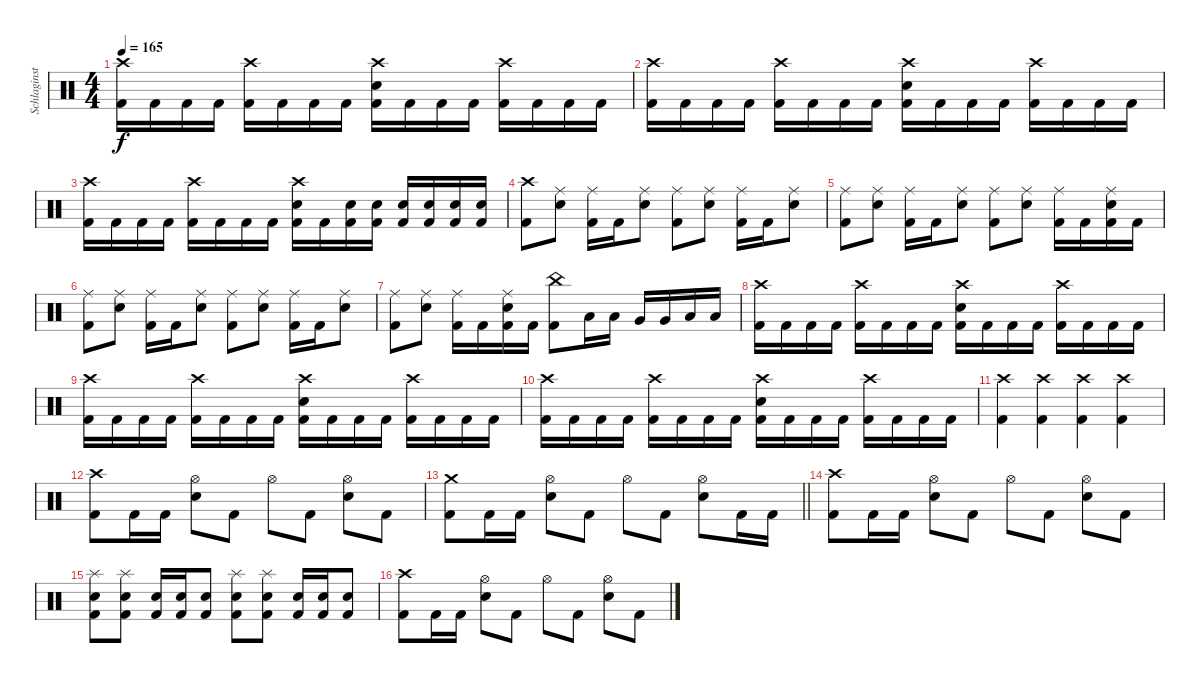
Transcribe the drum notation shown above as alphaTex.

\track ("Schlaginstrumente - Auswahl" "Schlaginst") {instrument percussion}
\staff {score}
\articulation defaults
\ts (4 4)
\tempo 165
\clef neutral
\ks c
("Crash high (hit)" "Kick (hit) 2").16{dy f} "Kick (hit) 2".16 "Kick (hit) 2".16 "Kick (hit) 2".16 ("Crash high (hit)" "Kick (hit) 2").16 "Kick (hit) 2".16 "Kick (hit) 2".16 "Kick (hit) 2".16 ("Crash high (hit)" "Snare (hit) 2" "Kick (hit) 2").16 "Kick (hit) 2".16 "Kick (hit) 2".16 "Kick (hit) 2".16 ("Crash high (hit)" "Kick (hit) 2").16 "Kick (hit) 2".16 "Kick (hit) 2".16 "Kick (hit) 2".16 |
("Crash high (hit)" "Kick (hit) 2").16 "Kick (hit) 2".16 "Kick (hit) 2".16 "Kick (hit) 2".16 ("Crash high (hit)" "Kick (hit) 2").16 "Kick (hit) 2".16 "Kick (hit) 2".16 "Kick (hit) 2".16 ("Crash high (hit)" "Snare (hit) 2" "Kick (hit) 2").16 "Kick (hit) 2".16 "Kick (hit) 2".16 "Kick (hit) 2".16 ("Crash high (hit)" "Kick (hit) 2").16 "Kick (hit) 2".16 "Kick (hit) 2".16 "Kick (hit) 2".16 |
("Crash high (hit)" "Kick (hit) 2").16 "Kick (hit) 2".16 "Kick (hit) 2".16 "Kick (hit) 2".16 ("Crash high (hit)" "Kick (hit) 2").16 "Kick (hit) 2".16 "Kick (hit) 2".16 "Kick (hit) 2".16 ("Crash high (hit)" "Snare (hit) 2" "Kick (hit) 2").16 "Kick (hit) 2".16 ("Snare (hit) 2" "Kick (hit) 2").16 ("Snare (hit) 2" "Kick (hit) 2").16 ("Snare (hit) 2" "Kick (hit) 2").16 ("Snare (hit) 2" "Kick (hit) 2").16 ("Snare (hit) 2" "Kick (hit) 2").16 ("Snare (hit) 2" "Kick (hit) 2").16 |
("Crash high (hit)" "Kick (hit) 2").8 ("Ride (middle)" "Snare (hit) 2").8 ("Ride (middle)" "Kick (hit) 2").16 "Kick (hit) 2".16 ("Ride (middle)" "Snare (hit) 2").8 ("Ride (middle)" "Kick (hit) 2").8 ("Ride (middle)" "Snare (hit) 2").8 ("Ride (middle)" "Kick (hit) 2").16 "Kick (hit) 2".16 ("Ride (middle)" "Snare (hit) 2").8 |
("Ride (middle)" "Kick (hit) 2").8 ("Ride (middle)" "Snare (hit) 2").8 ("Ride (middle)" "Kick (hit) 2").16 "Kick (hit) 2".16 ("Ride (middle)" "Snare (hit) 2").8 ("Ride (middle)" "Kick (hit) 2").8 ("Ride (middle)" "Snare (hit) 2").8 ("Ride (middle)" "Kick (hit) 2").16 "Kick (hit) 2".16 ("Ride (middle)" "Snare (hit) 2" "Kick (hit) 2").16 "Kick (hit) 2".16 |
("Ride (middle)" "Kick (hit) 2").8 ("Ride (middle)" "Snare (hit) 2").8 ("Ride (middle)" "Kick (hit) 2").16 "Kick (hit) 2".16 ("Ride (middle)" "Snare (hit) 2").8 ("Ride (middle)" "Kick (hit) 2").8 ("Ride (middle)" "Snare (hit) 2").8 ("Ride (middle)" "Kick (hit) 2").16 "Kick (hit) 2".16 ("Ride (middle)" "Snare (hit) 2").8 |
("Ride (middle)" "Kick (hit) 2").8 ("Ride (middle)" "Snare (hit) 2").8 ("Ride (middle)" "Kick (hit) 2").16 "Kick (hit) 2".16 ("Ride (middle)" "Snare (hit) 2" "Kick (hit) 2").16 "Kick (hit) 2".16 ("China (hit)" "Kick (hit) 2").8 "Low Tom (hit)".16 "Low Tom (hit)".16 "Very Low Tom (hit)".16 "Very Low Tom (hit)".16 "Low Floor Tom (hit)".16 "Low Floor Tom (hit)".16 |
("Crash high (hit)" "Kick (hit) 2").16 "Kick (hit) 2".16 "Kick (hit) 2".16 "Kick (hit) 2".16 ("Crash high (hit)" "Kick (hit) 2").16 "Kick (hit) 2".16 "Kick (hit) 2".16 "Kick (hit) 2".16 ("Crash high (hit)" "Snare (hit) 2" "Kick (hit) 2").16 "Kick (hit) 2".16 "Kick (hit) 2".16 "Kick (hit) 2".16 ("Crash high (hit)" "Kick (hit) 2").16 "Kick (hit) 2".16 "Kick (hit) 2".16 "Kick (hit) 2".16 |
("Crash high (hit)" "Kick (hit) 2").16 "Kick (hit) 2".16 "Kick (hit) 2".16 "Kick (hit) 2".16 ("Crash high (hit)" "Kick (hit) 2").16 "Kick (hit) 2".16 "Kick (hit) 2".16 "Kick (hit) 2".16 ("Crash high (hit)" "Snare (hit) 2" "Kick (hit) 2").16 "Kick (hit) 2".16 "Kick (hit) 2".16 "Kick (hit) 2".16 ("Crash high (hit)" "Kick (hit) 2").16 "Kick (hit) 2".16 "Kick (hit) 2".16 "Kick (hit) 2".16 |
("Crash high (hit)" "Kick (hit) 2").16 "Kick (hit) 2".16 "Kick (hit) 2".16 "Kick (hit) 2".16 ("Crash high (hit)" "Kick (hit) 2").16 "Kick (hit) 2".16 "Kick (hit) 2".16 "Kick (hit) 2".16 ("Crash high (hit)" "Snare (hit) 2" "Kick (hit) 2").16 "Kick (hit) 2".16 "Kick (hit) 2".16 "Kick (hit) 2".16 ("Crash high (hit)" "Kick (hit) 2").16 "Kick (hit) 2".16 "Kick (hit) 2".16 "Kick (hit) 2".16 |
("Crash high (hit)" "Kick (hit) 2").4 ("Crash high (hit)" "Kick (hit) 2").4 ("Crash high (hit)" "Kick (hit) 2").4 ("Crash high (hit)" "Kick (hit) 2").4 |
("Crash high (hit)" "Kick (hit) 2").8 "Kick (hit) 2".16 "Kick (hit) 2".16 ("Hi-Hat (open)" "Snare (hit) 2").8 "Kick (hit) 2".8 "Hi-Hat (open)".8 "Kick (hit) 2".8 ("Hi-Hat (open)" "Snare (hit) 2").8 "Kick (hit) 2".8 |
\barLineRight lightlight
("Crash medium (hit)" "Kick (hit) 2").8 "Kick (hit) 2".16 "Kick (hit) 2".16 ("Hi-Hat (open)" "Snare (hit) 2").8 "Kick (hit) 2".8 "Hi-Hat (open)".8 "Kick (hit) 2".8 ("Hi-Hat (open)" "Snare (hit) 2").8 "Kick (hit) 2".16 "Kick (hit) 2".16 |
("Crash high (hit)" "Kick (hit) 2").8 "Kick (hit) 2".16 "Kick (hit) 2".16 ("Hi-Hat (open)" "Snare (hit) 2").8 "Kick (hit) 2".8 "Hi-Hat (open)".8 "Kick (hit) 2".8 ("Hi-Hat (open)" "Snare (hit) 2").8 "Kick (hit) 2".8 |
("Splash (hit)" "Snare (hit) 2" "Kick (hit) 2").8 ("Splash (hit)" "Snare (hit) 2" "Kick (hit) 2").8 ("Snare (hit) 2" "Kick (hit) 2").16 ("Snare (hit) 2" "Kick (hit) 2").16 ("Snare (hit) 2" "Kick (hit) 2").8 ("Splash (hit)" "Snare (hit) 2" "Kick (hit) 2").8 ("Splash (hit)" "Snare (hit) 2" "Kick (hit) 2").8 ("Snare (hit) 2" "Kick (hit) 2").16 ("Snare (hit) 2" "Kick (hit) 2").16 ("Snare (hit) 2" "Kick (hit) 2").8 |
("Crash high (hit)" "Kick (hit) 2").8 "Kick (hit) 2".16 "Kick (hit) 2".16 ("Hi-Hat (open)" "Snare (hit) 2").8 "Kick (hit) 2".8 "Hi-Hat (open)".8 "Kick (hit) 2".8 ("Hi-Hat (open)" "Snare (hit) 2").8 "Kick (hit) 2".8
